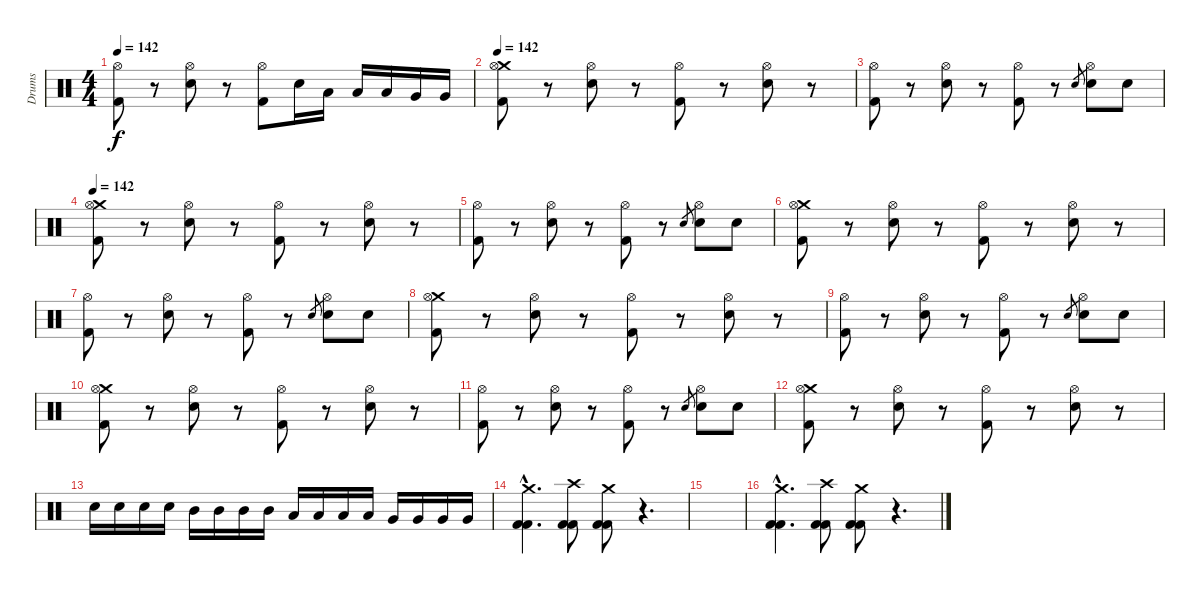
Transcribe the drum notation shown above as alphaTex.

\track ("Drums" "Drums") {instrument percussion}
\staff {score}
\articulation defaults
\ts (4 4)
\tempo 142
\clef neutral
\ks c
("Kick (hit) 2" "Hi-Hat (open)").8{dy f} r.8 ("Snare (hit) 2" "Hi-Hat (open)").8 r.8 ("Kick (hit) 2" "Hi-Hat (open)").8 "Snare (hit) 2".16 "Low Tom (hit)".16 "Low Tom (hit)".16 "Low Tom (hit)".16 "Very Low Tom (hit)".16 "Very Low Tom (hit)".16 |
\tempo 142
("Kick (hit) 2" "Crash medium (hit)" "Hi-Hat (open)").8 r.8 ("Snare (hit) 2" "Hi-Hat (open)").8 r.8 ("Kick (hit) 2" "Hi-Hat (open)").8 r.8 ("Snare (hit) 2" "Hi-Hat (open)").8 r.8 |
("Kick (hit) 2" "Hi-Hat (open)").8 r.8 ("Snare (hit) 2" "Hi-Hat (open)").8 r.8 ("Kick (hit) 2" "Hi-Hat (open)").8 r.8 "Snare (hit) 2".8{gr} ("Snare (hit) 2" "Hi-Hat (open)").8 "Snare (hit) 2".8 |
\tempo 142
("Kick (hit) 2" "Crash medium (hit)" "Hi-Hat (open)").8 r.8 ("Snare (hit) 2" "Hi-Hat (open)").8 r.8 ("Kick (hit) 2" "Hi-Hat (open)").8 r.8 ("Snare (hit) 2" "Hi-Hat (open)").8 r.8 |
("Kick (hit) 2" "Hi-Hat (open)").8 r.8 ("Snare (hit) 2" "Hi-Hat (open)").8 r.8 ("Kick (hit) 2" "Hi-Hat (open)").8 r.8 "Snare (hit) 2".8{gr} ("Snare (hit) 2" "Hi-Hat (open)").8 "Snare (hit) 2".8 |
("Kick (hit) 2" "Crash medium (hit)" "Hi-Hat (open)").8 r.8 ("Snare (hit) 2" "Hi-Hat (open)").8 r.8 ("Kick (hit) 2" "Hi-Hat (open)").8 r.8 ("Snare (hit) 2" "Hi-Hat (open)").8 r.8 |
("Kick (hit) 2" "Hi-Hat (open)").8 r.8 ("Snare (hit) 2" "Hi-Hat (open)").8 r.8 ("Kick (hit) 2" "Hi-Hat (open)").8 r.8 "Snare (hit) 2".8{gr} ("Snare (hit) 2" "Hi-Hat (open)").8 "Snare (hit) 2".8 |
("Kick (hit) 2" "Crash medium (hit)" "Hi-Hat (open)").8 r.8 ("Snare (hit) 2" "Hi-Hat (open)").8 r.8 ("Kick (hit) 2" "Hi-Hat (open)").8 r.8 ("Snare (hit) 2" "Hi-Hat (open)").8 r.8 |
("Kick (hit) 2" "Hi-Hat (open)").8 r.8 ("Snare (hit) 2" "Hi-Hat (open)").8 r.8 ("Kick (hit) 2" "Hi-Hat (open)").8 r.8 "Snare (hit) 2".8{gr} ("Snare (hit) 2" "Hi-Hat (open)").8 "Snare (hit) 2".8 |
("Kick (hit) 2" "Crash medium (hit)" "Hi-Hat (open)").8 r.8 ("Snare (hit) 2" "Hi-Hat (open)").8 r.8 ("Kick (hit) 2" "Hi-Hat (open)").8 r.8 ("Snare (hit) 2" "Hi-Hat (open)").8 r.8 |
("Kick (hit) 2" "Hi-Hat (open)").8 r.8 ("Snare (hit) 2" "Hi-Hat (open)").8 r.8 ("Kick (hit) 2" "Hi-Hat (open)").8 r.8 "Snare (hit) 2".8{gr} ("Snare (hit) 2" "Hi-Hat (open)").8 "Snare (hit) 2".8 |
("Kick (hit) 2" "Crash medium (hit)" "Hi-Hat (open)").8 r.8 ("Snare (hit) 2" "Hi-Hat (open)").8 r.8 ("Kick (hit) 2" "Hi-Hat (open)").8 r.8 ("Snare (hit) 2" "Hi-Hat (open)").8 r.8 |
"Snare (hit) 2".16 "Snare (hit) 2".16 "Snare (hit) 2".16 "Snare (hit) 2".16 "Mid Tom (hit)".16 "Mid Tom (hit)".16 "Mid Tom (hit)".16 "Mid Tom (hit)".16 "Low Tom (hit)".16 "Low Tom (hit)".16 "Low Tom (hit)".16 "Low Tom (hit)".16 "Very Low Tom (hit)".16 "Very Low Tom (hit)".16 "Very Low Tom (hit)".16 "Very Low Tom (hit)".16 |
("Kick (hit) 2"{hac} "Kick (hit) 2"{hac} "Crash medium (hit)"{hac}).4{d} ("Kick (hit) 2" "Kick (hit) 2" "Crash high (hit)").8 ("Kick (hit) 2" "Kick (hit) 2" "Crash medium (hit)").8 r.4{d} |
|
("Kick (hit) 2"{hac} "Kick (hit) 2"{hac} "Crash medium (hit)"{hac}).4{d} ("Kick (hit) 2" "Kick (hit) 2" "Crash high (hit)").8 ("Kick (hit) 2" "Kick (hit) 2" "Crash medium (hit)").8 r.4{d}
